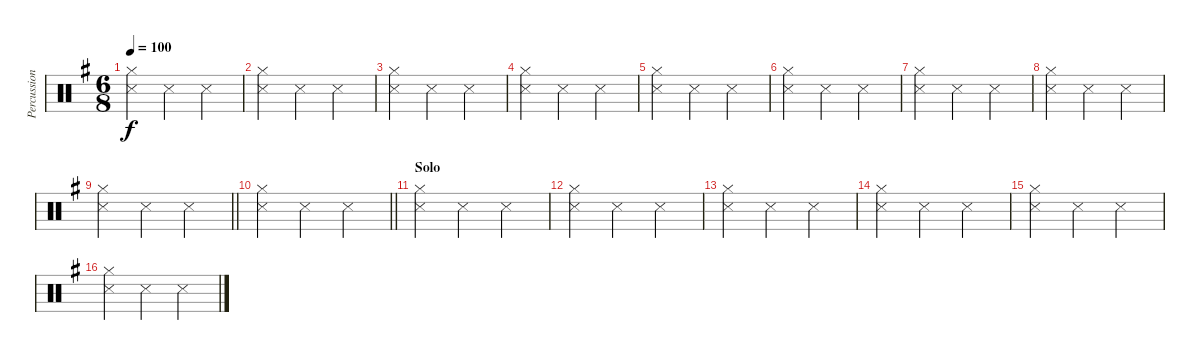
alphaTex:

\track ("Percussion" "Percussion") {mute instrument percussion}
\staff {score}
\articulation defaults
\ts (6 8)
\tempo 100
\clef neutral
\ks g
("Hi-Hat (closed)" "Snare (side stick) 3").4{dy f} "Snare (side stick) 3".4 "Snare (side stick) 3".4 |
("Hi-Hat (closed)" "Snare (side stick) 3").4 "Snare (side stick) 3".4 "Snare (side stick) 3".4 |
("Hi-Hat (closed)" "Snare (side stick) 3").4 "Snare (side stick) 3".4 "Snare (side stick) 3".4 |
("Hi-Hat (closed)" "Snare (side stick) 3").4 "Snare (side stick) 3".4 "Snare (side stick) 3".4 |
("Hi-Hat (closed)" "Snare (side stick) 3").4 "Snare (side stick) 3".4 "Snare (side stick) 3".4 |
("Hi-Hat (closed)" "Snare (side stick) 3").4 "Snare (side stick) 3".4 "Snare (side stick) 3".4 |
("Hi-Hat (closed)" "Snare (side stick) 3").4 "Snare (side stick) 3".4 "Snare (side stick) 3".4 |
("Hi-Hat (closed)" "Snare (side stick) 3").4 "Snare (side stick) 3".4 "Snare (side stick) 3".4 |
\barLineRight lightlight
("Hi-Hat (closed)" "Snare (side stick) 3").4 "Snare (side stick) 3".4 "Snare (side stick) 3".4 |
\barLineRight lightlight
("Hi-Hat (closed)" "Snare (side stick) 3").4 "Snare (side stick) 3".4 "Snare (side stick) 3".4 |
\section ("" "Solo")
("Hi-Hat (closed)" "Snare (side stick) 3").4 "Snare (side stick) 3".4 "Snare (side stick) 3".4 |
("Hi-Hat (closed)" "Snare (side stick) 3").4 "Snare (side stick) 3".4 "Snare (side stick) 3".4 |
("Hi-Hat (closed)" "Snare (side stick) 3").4 "Snare (side stick) 3".4 "Snare (side stick) 3".4 |
("Hi-Hat (closed)" "Snare (side stick) 3").4 "Snare (side stick) 3".4 "Snare (side stick) 3".4 |
("Hi-Hat (closed)" "Snare (side stick) 3").4 "Snare (side stick) 3".4 "Snare (side stick) 3".4 |
("Hi-Hat (closed)" "Snare (side stick) 3").4 "Snare (side stick) 3".4 "Snare (side stick) 3".4
